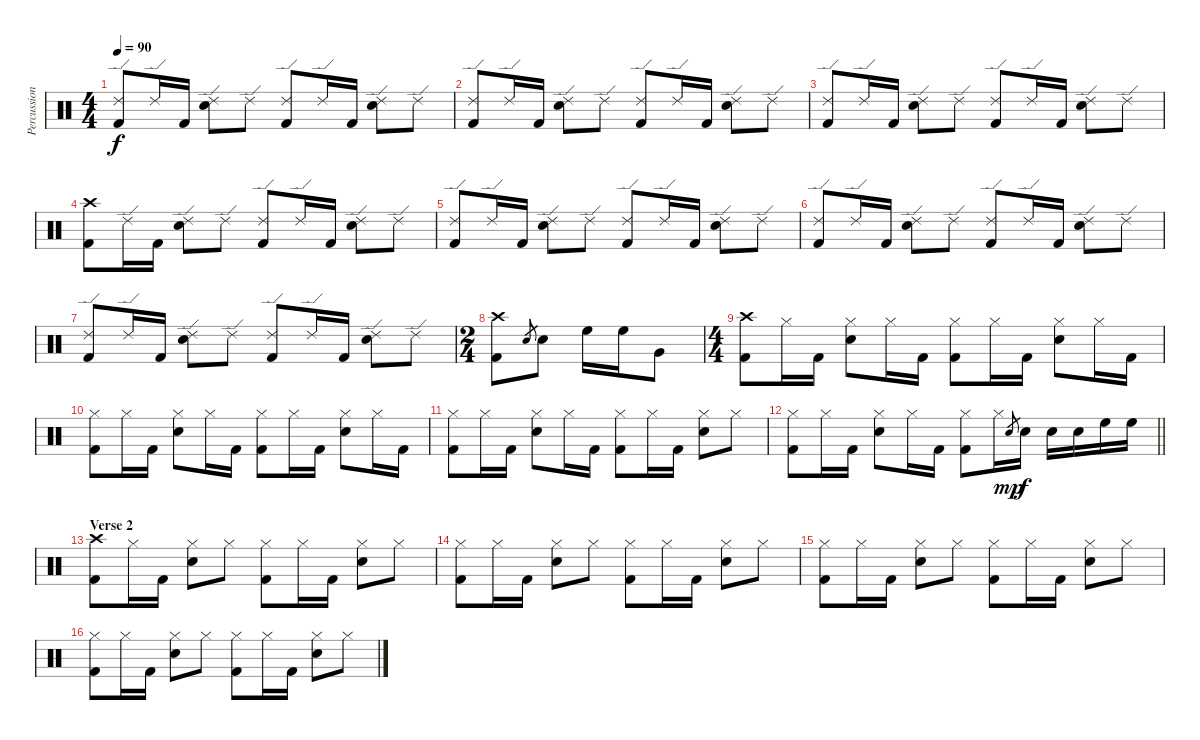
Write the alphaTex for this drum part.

\track ("Percussion" "Percussion") {instrument percussion}
\staff {score}
\articulation defaults
\ts (4 4)
\tempo 90
\clef neutral
\ks c
("Ride (edge) 2" "Kick (hit) 2").8{dy f} "Ride (edge) 2".16 "Kick (hit) 2".16 ("Ride (edge) 2" "Electric Snare (hit)").8 "Ride (edge) 2".8 ("Ride (edge) 2" "Kick (hit) 2").8 "Ride (edge) 2".16 "Kick (hit) 2".16 ("Ride (edge) 2" "Electric Snare (hit)").8 "Ride (edge) 2".8 |
("Ride (edge) 2" "Kick (hit) 2").8 "Ride (edge) 2".16 "Kick (hit) 2".16 ("Ride (edge) 2" "Electric Snare (hit)").8 "Ride (edge) 2".8 ("Ride (edge) 2" "Kick (hit) 2").8 "Ride (edge) 2".16 "Kick (hit) 2".16 ("Ride (edge) 2" "Electric Snare (hit)").8 "Ride (edge) 2".8 |
("Ride (edge) 2" "Kick (hit) 2").8 "Ride (edge) 2".16 "Kick (hit) 2".16 ("Ride (edge) 2" "Electric Snare (hit)").8 "Ride (edge) 2".8 ("Ride (edge) 2" "Kick (hit) 2").8 "Ride (edge) 2".16 "Kick (hit) 2".16 ("Ride (edge) 2" "Electric Snare (hit)").8 "Ride (edge) 2".8 |
("Crash high (hit)" "Kick (hit) 2").8 "Ride (edge) 2".16 "Kick (hit) 2".16 ("Ride (edge) 2" "Electric Snare (hit)").8 "Ride (edge) 2".8 ("Ride (edge) 2" "Kick (hit) 2").8 "Ride (edge) 2".16 "Kick (hit) 2".16 ("Ride (edge) 2" "Electric Snare (hit)").8 "Ride (edge) 2".8 |
("Ride (edge) 2" "Kick (hit) 2").8 "Ride (edge) 2".16 "Kick (hit) 2".16 ("Ride (edge) 2" "Electric Snare (hit)").8 "Ride (edge) 2".8 ("Ride (edge) 2" "Kick (hit) 2").8 "Ride (edge) 2".16 "Kick (hit) 2".16 ("Ride (edge) 2" "Electric Snare (hit)").8 "Ride (edge) 2".8 |
("Ride (edge) 2" "Kick (hit) 2").8 "Ride (edge) 2".16 "Kick (hit) 2".16 ("Ride (edge) 2" "Electric Snare (hit)").8 "Ride (edge) 2".8 ("Ride (edge) 2" "Kick (hit) 2").8 "Ride (edge) 2".16 "Kick (hit) 2".16 ("Ride (edge) 2" "Electric Snare (hit)").8 "Ride (edge) 2".8 |
("Ride (edge) 2" "Kick (hit) 2").8 "Ride (edge) 2".16 "Kick (hit) 2".16 ("Ride (edge) 2" "Electric Snare (hit)").8 "Ride (edge) 2".8 ("Ride (edge) 2" "Kick (hit) 2").8 "Ride (edge) 2".16 "Kick (hit) 2".16 ("Ride (edge) 2" "Electric Snare (hit)").8 "Ride (edge) 2".8 |
\ts (2 4)
("Crash high (hit)" "Kick (hit) 2").8 "Electric Snare (hit)".8{gr} "Electric Snare (hit)".8 "High Floor Tom (hit)".16 "High Floor Tom (hit)".16 "Very Low Tom (hit)".8 |
\ts (4 4)
("Crash high (hit)" "Kick (hit) 2").8 "Hi-Hat (closed)".16 "Kick (hit) 2".16 ("Hi-Hat (closed)" "Electric Snare (hit)").8 "Hi-Hat (closed)".16 "Kick (hit) 2".16 ("Hi-Hat (closed)" "Kick (hit) 2").8 "Hi-Hat (closed)".16 "Kick (hit) 2".16 ("Hi-Hat (closed)" "Electric Snare (hit)").8 "Hi-Hat (closed)".16 "Kick (hit) 2".16 |
("Hi-Hat (closed)" "Kick (hit) 2").8 "Hi-Hat (closed)".16 "Kick (hit) 2".16 ("Hi-Hat (closed)" "Electric Snare (hit)").8 "Hi-Hat (closed)".16 "Kick (hit) 2".16 ("Hi-Hat (closed)" "Kick (hit) 2").8 "Hi-Hat (closed)".16 "Kick (hit) 2".16 ("Hi-Hat (closed)" "Electric Snare (hit)").8 "Hi-Hat (closed)".16 "Kick (hit) 2".16 |
("Hi-Hat (closed)" "Kick (hit) 2").8 "Hi-Hat (closed)".16 "Kick (hit) 2".16 ("Hi-Hat (closed)" "Electric Snare (hit)").8 "Hi-Hat (closed)".16 "Kick (hit) 2".16 ("Hi-Hat (closed)" "Kick (hit) 2").8 "Hi-Hat (closed)".16 "Kick (hit) 2".16 ("Hi-Hat (closed)" "Electric Snare (hit)").8 "Hi-Hat (closed)".8 |
\barLineRight lightlight
("Hi-Hat (closed)" "Kick (hit) 2").8 "Hi-Hat (closed)".16 "Kick (hit) 2".16 ("Hi-Hat (closed)" "Electric Snare (hit)").8 "Hi-Hat (closed)".16 "Kick (hit) 2".16 ("Hi-Hat (closed)" "Kick (hit) 2").8 "Hi-Hat (closed)".16 "Electric Snare (hit)".8{gr dy mp} "Electric Snare (hit)".16{dy f} "Electric Snare (hit)".16 "Electric Snare (hit)".16 "High Floor Tom (hit)".16 "High Floor Tom (hit)".16 |
\section ("" "Verse 2")
("Crash high (hit)" "Kick (hit) 2").8 "Hi-Hat (closed)".16 "Kick (hit) 2".16 ("Hi-Hat (closed)" "Electric Snare (hit)").8 "Hi-Hat (closed)".8 ("Hi-Hat (closed)" "Kick (hit) 2").8 "Hi-Hat (closed)".16 "Kick (hit) 2".16 ("Hi-Hat (closed)" "Electric Snare (hit)").8 "Hi-Hat (closed)".8 |
("Hi-Hat (closed)" "Kick (hit) 2").8 "Hi-Hat (closed)".16 "Kick (hit) 2".16 ("Hi-Hat (closed)" "Electric Snare (hit)").8 "Hi-Hat (closed)".8 ("Hi-Hat (closed)" "Kick (hit) 2").8 "Hi-Hat (closed)".16 "Kick (hit) 2".16 ("Hi-Hat (closed)" "Electric Snare (hit)").8 "Hi-Hat (closed)".8 |
("Hi-Hat (closed)" "Kick (hit) 2").8 "Hi-Hat (closed)".16 "Kick (hit) 2".16 ("Hi-Hat (closed)" "Electric Snare (hit)").8 "Hi-Hat (closed)".8 ("Hi-Hat (closed)" "Kick (hit) 2").8 "Hi-Hat (closed)".16 "Kick (hit) 2".16 ("Hi-Hat (closed)" "Electric Snare (hit)").8 "Hi-Hat (closed)".8 |
("Hi-Hat (closed)" "Kick (hit) 2").8 "Hi-Hat (closed)".16 "Kick (hit) 2".16 ("Hi-Hat (closed)" "Electric Snare (hit)").8 "Hi-Hat (closed)".8 ("Hi-Hat (closed)" "Kick (hit) 2").8 "Hi-Hat (closed)".16 "Kick (hit) 2".16 ("Hi-Hat (closed)" "Electric Snare (hit)").8 "Hi-Hat (closed)".8
